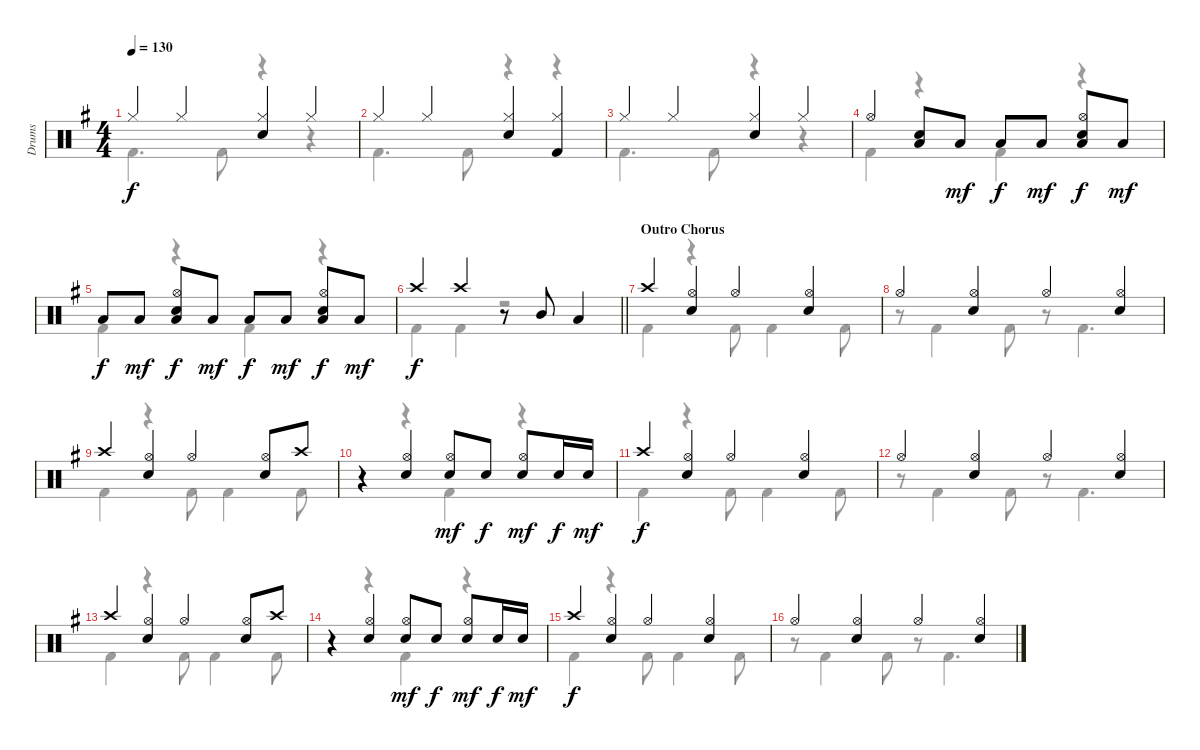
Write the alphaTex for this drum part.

\track ("Drums" "Drums") {instrument percussion}
\staff {score}
\articulation defaults
\voice
\ts (4 4)
\tempo 130
\clef neutral
\ks g "Hi-Hat (closed)".4{dy f} "Hi-Hat (closed)".4
("Hi-Hat (closed)" "Electric Snare (hit)").4 "Hi-Hat (closed)".4 |
"Hi-Hat (closed)".4 "Hi-Hat (closed)".4 ("Hi-Hat (closed)" "Electric Snare (hit)").4 ("Hi-Hat (closed)" "Kick (hit) 2").4 |
"Hi-Hat (closed)".4 "Hi-Hat (closed)".4 ("Hi-Hat (closed)" "Electric Snare (hit)").4 "Hi-Hat (closed)".4 |
"Hi-Hat (open)".4 ("Low Floor Tom (hit)" "Electric Snare (hit)").8 "Low Floor Tom (hit)".8{dy mf} "Low Floor Tom (hit)".8{dy f} "Low Floor Tom (hit)".8{dy mf} ("Low Floor Tom (hit)" "Hi-Hat (open)" "Electric Snare (hit)").8{dy f} "Low Floor Tom (hit)".8{dy mf} |
"Low Floor Tom (hit)".8{dy f} "Low Floor Tom (hit)".8{dy mf} ("Low Floor Tom (hit)" "Hi-Hat (open)" "Electric Snare (hit)").8{dy f} "Low Floor Tom (hit)".8{dy mf} "Low Floor Tom (hit)".8{dy f} "Low Floor Tom (hit)".8{dy mf} ("Low Floor Tom (hit)" "Hi-Hat (open)" "Electric Snare (hit)").8{dy f} "Low Floor Tom (hit)".8{dy mf} |
\barLineRight lightlight "Crash high (hit)".4{dy f} "Crash high (hit)".4
r.8 "Mid Tom (hit)".8 "Low Tom (hit)".4 |
\section ("" "Outro Chorus")
"Crash high (hit)".4 ("Hi-Hat (open)" "Electric Snare (hit)").4 "Hi-Hat (open)".4 ("Hi-Hat (open)" "Electric Snare (hit)").4 |
"Hi-Hat (open)".4 ("Hi-Hat (open)" "Electric Snare (hit)").4 "Hi-Hat (open)".4 ("Hi-Hat (open)" "Electric Snare (hit)").4 |
"Crash high (hit)".4 ("Hi-Hat (open)" "Electric Snare (hit)").4 "Hi-Hat (open)".4 ("Hi-Hat (open)" "Electric Snare (hit)").8 "Crash high (hit)".8 |
r.4 ("Hi-Hat (open)" "Electric Snare (hit)").4 ("Hi-Hat (open)" "Electric Snare (hit)").8{dy mf} "Electric Snare (hit)".8{dy f} ("Hi-Hat (open)" "Electric Snare (hit)").8{dy mf} "Electric Snare (hit)".16{dy f} "Electric Snare (hit)".16{dy mf} |
"Crash high (hit)".4{dy f} ("Hi-Hat (open)" "Electric Snare (hit)").4 "Hi-Hat (open)".4 ("Hi-Hat (open)" "Electric Snare (hit)").4 |
"Hi-Hat (open)".4 ("Hi-Hat (open)" "Electric Snare (hit)").4 "Hi-Hat (open)".4 ("Hi-Hat (open)" "Electric Snare (hit)").4 |
"Crash high (hit)".4 ("Hi-Hat (open)" "Electric Snare (hit)").4 "Hi-Hat (open)".4 ("Hi-Hat (open)" "Electric Snare (hit)").8 "Crash high (hit)".8 |
r.4 ("Hi-Hat (open)" "Electric Snare (hit)").4 ("Hi-Hat (open)" "Electric Snare (hit)").8{dy mf} "Electric Snare (hit)".8{dy f} ("Hi-Hat (open)" "Electric Snare (hit)").8{dy mf} "Electric Snare (hit)".16{dy f} "Electric Snare (hit)".16{dy mf} |
"Crash high (hit)".4{dy f} ("Hi-Hat (open)" "Electric Snare (hit)").4 "Hi-Hat (open)".4 ("Hi-Hat (open)" "Electric Snare (hit)").4 |
"Hi-Hat (open)".4 ("Hi-Hat (open)" "Electric Snare (hit)").4 "Hi-Hat (open)".4 ("Hi-Hat (open)" "Electric Snare (hit)").4
\voice
\clef neutral
\ottava regular
\simile none
\ks g "Kick (hit) 2".4{d dy f} "Kick (hit) 2".8
r.4 r.4 |
"Kick (hit) 2".4{d} "Kick (hit) 2".8 r.4 r.4 |
"Kick (hit) 2".4{d} "Kick (hit) 2".8 r.4 r.4 |
"Kick (hit) 2".4 r.4 "Kick (hit) 2".4 r.4 |
"Kick (hit) 2".4 r.4 "Kick (hit) 2".4 r.4 |
\barLineRight lightlight "Kick (hit) 2".4 "Kick (hit) 2".4
r.2 |
"Kick (hit) 2".4 r.4 "Kick (hit) 2".8 "Kick (hit) 2".4 "Kick (hit) 2".8 |
r.8 "Kick (hit) 2".4 "Kick (hit) 2".8 r.8 "Kick (hit) 2".4{d} |
"Kick (hit) 2".4 r.4 "Kick (hit) 2".8 "Kick (hit) 2".4 "Kick (hit) 2".8 |
r.4 r.4 "Kick (hit) 2".4{dy mf} r.4 |
"Kick (hit) 2".4{dy f} r.4 "Kick (hit) 2".8 "Kick (hit) 2".4 "Kick (hit) 2".8 |
r.8 "Kick (hit) 2".4 "Kick (hit) 2".8 r.8 "Kick (hit) 2".4{d} |
"Kick (hit) 2".4 r.4 "Kick (hit) 2".8 "Kick (hit) 2".4 "Kick (hit) 2".8 |
r.4 r.4 "Kick (hit) 2".4{dy mf} r.4 |
"Kick (hit) 2".4{dy f} r.4 "Kick (hit) 2".8 "Kick (hit) 2".4 "Kick (hit) 2".8 |
r.8 "Kick (hit) 2".4 "Kick (hit) 2".8 r.8 "Kick (hit) 2".4{d}
